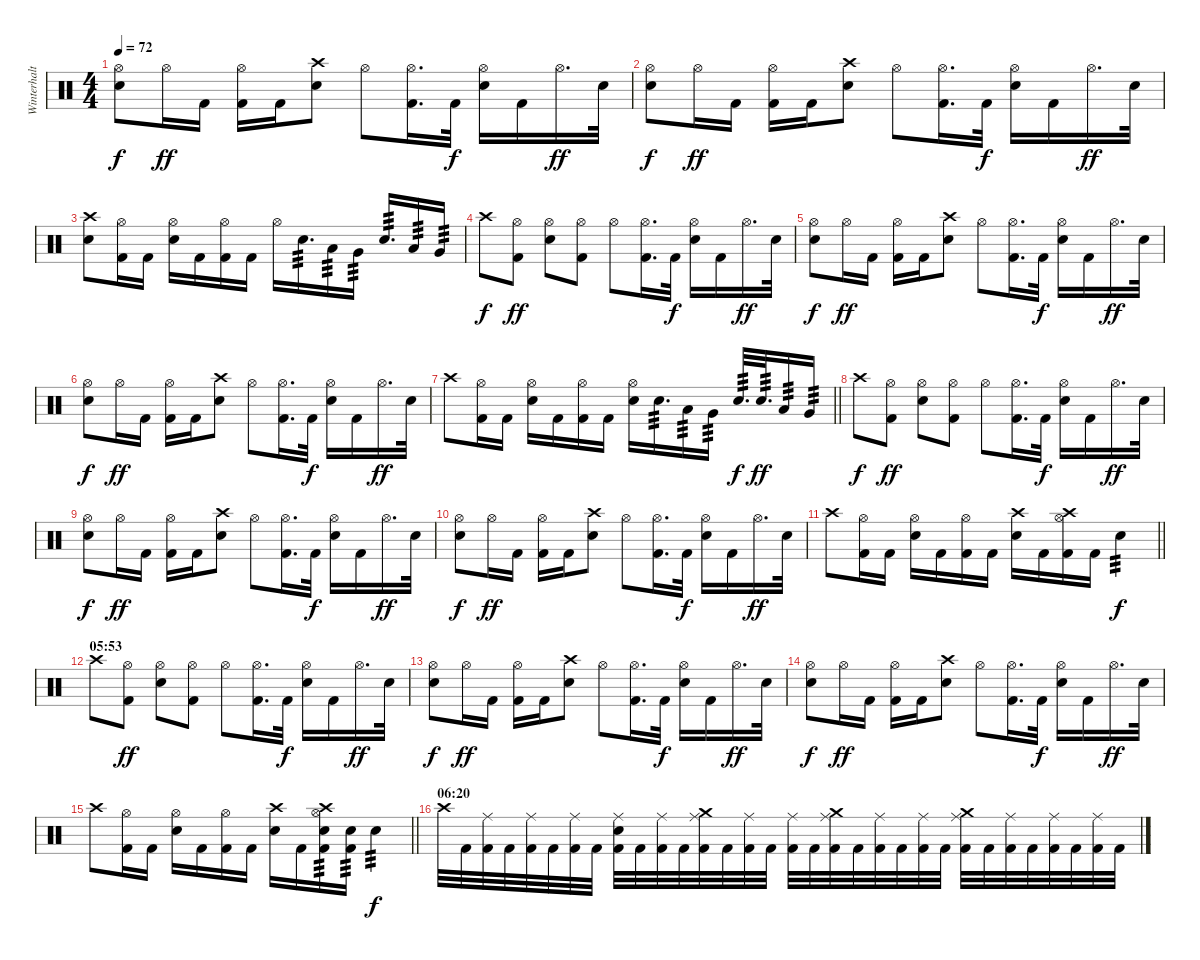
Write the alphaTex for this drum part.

\track ("Winterhalten" "Winterhalt") {instrument percussion}
\staff {score}
\articulation defaults
\ts (4 4)
\tempo 72
\clef neutral
\ks c
("Hi-Hat (open)" "Electric Snare (hit)").8{dy f} "Hi-Hat (open)".16{dy ff} "Kick (hit) 2".16 ("Hi-Hat (open)" "Kick (hit) 2").16 "Kick (hit) 2".16 ("Crash high (hit)" "Electric Snare (hit)").8 "Hi-Hat (open)".8 ("Hi-Hat (open)" "Kick (hit) 2").16{d} "Kick (hit) 2".32{dy f} ("Hi-Hat (open)" "Electric Snare (hit)").16 "Kick (hit) 2".16 "Hi-Hat (open)".16{d dy ff} "Electric Snare (hit)".32 |
("Hi-Hat (open)" "Electric Snare (hit)").8{dy f} "Hi-Hat (open)".16{dy ff} "Kick (hit) 2".16 ("Hi-Hat (open)" "Kick (hit) 2").16 "Kick (hit) 2".16 ("Crash high (hit)" "Electric Snare (hit)").8 "Hi-Hat (open)".8 ("Hi-Hat (open)" "Kick (hit) 2").16{d} "Kick (hit) 2".32{dy f} ("Hi-Hat (open)" "Electric Snare (hit)").16 "Kick (hit) 2".16 "Hi-Hat (open)".16{d dy ff} "Electric Snare (hit)".32 |
("Crash high (hit)" "Electric Snare (hit)").8 ("Hi-Hat (open)" "Kick (hit) 2").16 "Kick (hit) 2".16 ("Hi-Hat (open)" "Electric Snare (hit)").16 "Kick (hit) 2".16 ("Hi-Hat (open)" "Kick (hit) 2").16 "Kick (hit) 2".16 "Hi-Hat (open)".16 "Snare (hit) 2".16{d tp 3} "Low Tom (hit)".16{tp 3} "Very Low Tom (hit)".16{tp 3} "Electric Snare (hit)".16{d tp 3} "Low Tom (hit)".16{tp 3} "Very Low Tom (hit)".16{tp 3} |
"Crash high (hit)".8{dy f} ("Hi-Hat (open)" "Kick (hit) 2").8{dy ff} ("Hi-Hat (open)" "Electric Snare (hit)").8 ("Hi-Hat (open)" "Kick (hit) 2").8 "Hi-Hat (open)".8 ("Hi-Hat (open)" "Kick (hit) 2").16{d} "Kick (hit) 2".32{dy f} ("Hi-Hat (open)" "Electric Snare (hit)").16 "Kick (hit) 2".16 "Hi-Hat (open)".16{d dy ff} "Electric Snare (hit)".32 |
("Hi-Hat (open)" "Electric Snare (hit)").8{dy f} "Hi-Hat (open)".16{dy ff} "Kick (hit) 2".16 ("Hi-Hat (open)" "Kick (hit) 2").16 "Kick (hit) 2".16 ("Crash high (hit)" "Electric Snare (hit)").8 "Hi-Hat (open)".8 ("Hi-Hat (open)" "Kick (hit) 2").16{d} "Kick (hit) 2".32{dy f} ("Hi-Hat (open)" "Electric Snare (hit)").16 "Kick (hit) 2".16 "Hi-Hat (open)".16{d dy ff} "Electric Snare (hit)".32 |
("Hi-Hat (open)" "Electric Snare (hit)").8{dy f} "Hi-Hat (open)".16{dy ff} "Kick (hit) 2".16 ("Hi-Hat (open)" "Kick (hit) 2").16 "Kick (hit) 2".16 ("Crash high (hit)" "Electric Snare (hit)").8 "Hi-Hat (open)".8 ("Hi-Hat (open)" "Kick (hit) 2").16{d} "Kick (hit) 2".32{dy f} ("Hi-Hat (open)" "Electric Snare (hit)").16 "Kick (hit) 2".16 "Hi-Hat (open)".16{d dy ff} "Electric Snare (hit)".32 |
\barLineRight lightlight "Crash high (hit)".8
("Hi-Hat (open)" "Kick (hit) 2").16 "Kick (hit) 2".16 ("Hi-Hat (open)" "Electric Snare (hit)").16 "Kick (hit) 2".16 ("Hi-Hat (open)" "Kick (hit) 2").16 "Kick (hit) 2".16 ("Hi-Hat (open)" "Electric Snare (hit)").16 "Snare (hit) 2".16{d tp 3} "Low Tom (hit)".16{tp 3} "Very Low Tom (hit)".16{tp 3} "Electric Snare (hit)".32{d tp 3 dy f} "Electric Snare (hit)".32{d tp 3 dy ff} "Low Tom (hit)".16{tp 3} "Very Low Tom (hit)".16{tp 3} |
"Crash high (hit)".8{dy f} ("Hi-Hat (open)" "Kick (hit) 2").8{dy ff} ("Hi-Hat (open)" "Electric Snare (hit)").8 ("Hi-Hat (open)" "Kick (hit) 2").8 "Hi-Hat (open)".8 ("Hi-Hat (open)" "Kick (hit) 2").16{d} "Kick (hit) 2".32{dy f} ("Hi-Hat (open)" "Electric Snare (hit)").16 "Kick (hit) 2".16 "Hi-Hat (open)".16{d dy ff} "Electric Snare (hit)".32 |
("Hi-Hat (open)" "Electric Snare (hit)").8{dy f} "Hi-Hat (open)".16{dy ff} "Kick (hit) 2".16 ("Hi-Hat (open)" "Kick (hit) 2").16 "Kick (hit) 2".16 ("Crash high (hit)" "Electric Snare (hit)").8 "Hi-Hat (open)".8 ("Hi-Hat (open)" "Kick (hit) 2").16{d} "Kick (hit) 2".32{dy f} ("Hi-Hat (open)" "Electric Snare (hit)").16 "Kick (hit) 2".16 "Hi-Hat (open)".16{d dy ff} "Electric Snare (hit)".32 |
("Hi-Hat (open)" "Electric Snare (hit)").8{dy f} "Hi-Hat (open)".16{dy ff} "Kick (hit) 2".16 ("Hi-Hat (open)" "Kick (hit) 2").16 "Kick (hit) 2".16 ("Crash high (hit)" "Electric Snare (hit)").8 "Hi-Hat (open)".8 ("Hi-Hat (open)" "Kick (hit) 2").16{d} "Kick (hit) 2".32{dy f} ("Hi-Hat (open)" "Electric Snare (hit)").16 "Kick (hit) 2".16 "Hi-Hat (open)".16{d dy ff} "Electric Snare (hit)".32 |
\barLineRight lightlight "Crash high (hit)".8
("Hi-Hat (open)" "Kick (hit) 2").16 "Kick (hit) 2".16 ("Hi-Hat (open)" "Electric Snare (hit)").16 "Kick (hit) 2".16 ("Hi-Hat (open)" "Kick (hit) 2").16 "Kick (hit) 2".16 ("Crash high (hit)" "Electric Snare (hit)").16 "Kick (hit) 2".16 ("Crash high (hit)" "Hi-Hat (open)" "Kick (hit) 2").16 "Kick (hit) 2".16 "Electric Snare (hit)".4{tp 3 dy f} |
\section ("" "05:53")
"Crash high (hit)".8 ("Hi-Hat (open)" "Kick (hit) 2").8{dy ff} ("Hi-Hat (open)" "Electric Snare (hit)").8 ("Hi-Hat (open)" "Kick (hit) 2").8 "Hi-Hat (open)".8 ("Hi-Hat (open)" "Kick (hit) 2").16{d} "Kick (hit) 2".32{dy f} ("Hi-Hat (open)" "Electric Snare (hit)").16 "Kick (hit) 2".16 "Hi-Hat (open)".16{d dy ff} "Electric Snare (hit)".32 |
("Hi-Hat (open)" "Electric Snare (hit)").8{dy f} "Hi-Hat (open)".16{dy ff} "Kick (hit) 2".16 ("Hi-Hat (open)" "Kick (hit) 2").16 "Kick (hit) 2".16 ("Crash high (hit)" "Electric Snare (hit)").8 "Hi-Hat (open)".8 ("Hi-Hat (open)" "Kick (hit) 2").16{d} "Kick (hit) 2".32{dy f} ("Hi-Hat (open)" "Electric Snare (hit)").16 "Kick (hit) 2".16 "Hi-Hat (open)".16{d dy ff} "Electric Snare (hit)".32 |
("Hi-Hat (open)" "Electric Snare (hit)").8{dy f} "Hi-Hat (open)".16{dy ff} "Kick (hit) 2".16 ("Hi-Hat (open)" "Kick (hit) 2").16 "Kick (hit) 2".16 ("Crash high (hit)" "Electric Snare (hit)").8 "Hi-Hat (open)".8 ("Hi-Hat (open)" "Kick (hit) 2").16{d} "Kick (hit) 2".32{dy f} ("Hi-Hat (open)" "Electric Snare (hit)").16 "Kick (hit) 2".16 "Hi-Hat (open)".16{d dy ff} "Electric Snare (hit)".32 |
\barLineRight lightlight "Crash high (hit)".8
("Hi-Hat (open)" "Kick (hit) 2").16 "Kick (hit) 2".16 ("Hi-Hat (open)" "Electric Snare (hit)").16 "Kick (hit) 2".16 ("Hi-Hat (open)" "Kick (hit) 2").16 "Kick (hit) 2".16 ("Crash high (hit)" "Electric Snare (hit)").16 "Kick (hit) 2".16 ("Crash high (hit)" "Hi-Hat (open)" "Electric Snare (hit)" "Kick (hit) 2").16{tp 3} ("Electric Snare (hit)" "Kick (hit) 2").16{tp 3} "Electric Snare (hit)".4{tp 3 dy f} |
\section ("" "06:20")
"Crash high (hit)".32 "Kick (hit) 2".32 ("Ride (middle)" "Kick (hit) 2").32 "Kick (hit) 2".32 ("Ride (middle)" "Kick (hit) 2").32 "Kick (hit) 2".32 ("Ride (middle)" "Kick (hit) 2").32 "Kick (hit) 2".32 ("Ride (middle)" "Electric Snare (hit)" "Kick (hit) 2").32 "Kick (hit) 2".32 ("Ride (middle)" "Kick (hit) 2").32 "Kick (hit) 2".32 ("Crash medium (hit)" "Ride (middle)" "Kick (hit) 2").32 "Kick (hit) 2".32 ("Ride (middle)" "Kick (hit) 2").32 "Kick (hit) 2".32 ("Ride (middle)" "Kick (hit) 2").32 "Kick (hit) 2".32 ("Crash medium (hit)" "Ride (middle)" "Kick (hit) 2").32 "Kick (hit) 2".32 ("Ride (middle)" "Kick (hit) 2").32 "Kick (hit) 2".32 ("Ride (middle)" "Kick (hit) 2").32 "Kick (hit) 2".32 ("Crash medium (hit)" "Ride (middle)" "Kick (hit) 2").32 "Kick (hit) 2".32 ("Ride (middle)" "Kick (hit) 2").32 "Kick (hit) 2".32 ("Ride (middle)" "Kick (hit) 2").32 "Kick (hit) 2".32 ("Ride (middle)" "Kick (hit) 2").32 "Kick (hit) 2".32
